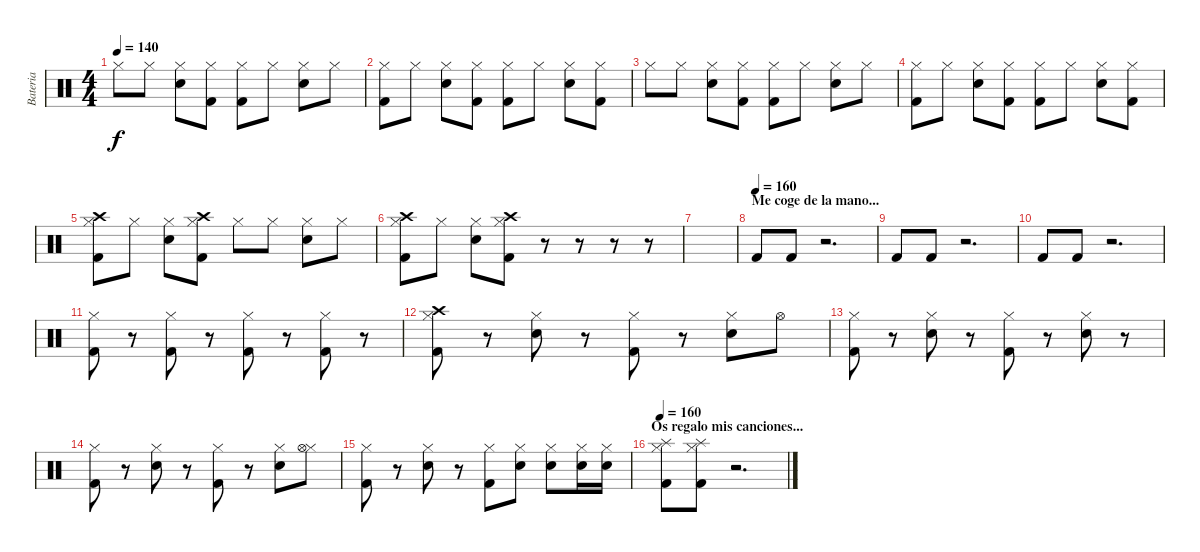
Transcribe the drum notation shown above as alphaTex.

\track ("Bateria" "Bateria") {instrument percussion}
\staff {score}
\articulation defaults
\ts (4 4)
\tempo 140
\clef neutral
\ks c "Hi-Hat (closed)".8{dy f} "Hi-Hat (closed)".8
("Hi-Hat (closed)" "Snare (hit) 2").8 ("Hi-Hat (closed)" "Kick (hit) 2").8 ("Hi-Hat (closed)" "Kick (hit) 2").8 "Hi-Hat (closed)".8 ("Hi-Hat (closed)" "Snare (hit) 2").8 "Hi-Hat (closed)".8 |
("Hi-Hat (closed)" "Kick (hit) 2").8 "Hi-Hat (closed)".8 ("Hi-Hat (closed)" "Snare (hit) 2").8 ("Hi-Hat (closed)" "Kick (hit) 2").8 ("Hi-Hat (closed)" "Kick (hit) 2").8 "Hi-Hat (closed)".8 ("Hi-Hat (closed)" "Snare (hit) 2").8 ("Hi-Hat (closed)" "Kick (hit) 2").8 |
"Hi-Hat (closed)".8 "Hi-Hat (closed)".8 ("Hi-Hat (closed)" "Snare (hit) 2").8 ("Hi-Hat (closed)" "Kick (hit) 2").8 ("Hi-Hat (closed)" "Kick (hit) 2").8 "Hi-Hat (closed)".8 ("Hi-Hat (closed)" "Snare (hit) 2").8 "Hi-Hat (closed)".8 |
("Hi-Hat (closed)" "Kick (hit) 2").8 "Hi-Hat (closed)".8 ("Hi-Hat (closed)" "Snare (hit) 2").8 ("Hi-Hat (closed)" "Kick (hit) 2").8 ("Hi-Hat (closed)" "Kick (hit) 2").8 "Hi-Hat (closed)".8 ("Hi-Hat (closed)" "Snare (hit) 2").8 ("Hi-Hat (closed)" "Kick (hit) 2").8 |
("Hi-Hat (closed)" "Crash high (hit)" "Kick (hit) 2").8 "Hi-Hat (closed)".8 ("Hi-Hat (closed)" "Snare (hit) 2").8 ("Hi-Hat (closed)" "Crash high (hit)" "Kick (hit) 2").8 "Hi-Hat (closed)".8 "Hi-Hat (closed)".8 ("Hi-Hat (closed)" "Snare (hit) 2").8 "Hi-Hat (closed)".8 |
("Hi-Hat (closed)" "Crash high (hit)" "Kick (hit) 2").8 "Hi-Hat (closed)".8 ("Hi-Hat (closed)" "Snare (hit) 2").8 ("Hi-Hat (closed)" "Crash high (hit)" "Kick (hit) 2").8 r.8 r.8 r.8 r.8 |
|
\section ("" "Me coge de la mano...")
\tempo (160)
"Kick (hit) 2".8 "Kick (hit) 2".8 r.2{d} |
"Kick (hit) 2".8 "Kick (hit) 2".8 r.2{d} |
"Kick (hit) 2".8 "Kick (hit) 2".8 r.2{d} |
("Hi-Hat (closed)" "Kick (hit) 2").8 r.8 ("Hi-Hat (closed)" "Kick (hit) 2").8 r.8 ("Hi-Hat (closed)" "Kick (hit) 2").8 r.8 ("Hi-Hat (closed)" "Kick (hit) 2").8 r.8 |
("Hi-Hat (closed)" "Crash high (hit)" "Kick (hit) 2").8 r.8 ("Hi-Hat (closed)" "Snare (hit) 2").8 r.8 ("Hi-Hat (closed)" "Kick (hit) 2").8 r.8 ("Hi-Hat (closed)" "Snare (hit) 2").8 "Hi-Hat (open)".8 |
("Hi-Hat (closed)" "Kick (hit) 2").8 r.8 ("Hi-Hat (closed)" "Snare (hit) 2").8 r.8 ("Hi-Hat (closed)" "Kick (hit) 2").8 r.8 ("Hi-Hat (closed)" "Snare (hit) 2").8 r.8 |
("Hi-Hat (closed)" "Kick (hit) 2").8 r.8 ("Hi-Hat (closed)" "Snare (hit) 2").8 r.8 ("Hi-Hat (closed)" "Kick (hit) 2").8 r.8 ("Hi-Hat (closed)" "Snare (hit) 2").8 ("Hi-Hat (closed)" "Hi-Hat (open)").8 |
("Hi-Hat (closed)" "Kick (hit) 2").8 r.8 ("Hi-Hat (closed)" "Snare (hit) 2").8 r.8 ("Hi-Hat (closed)" "Kick (hit) 2").8 ("Hi-Hat (closed)" "Snare (hit) 2").8 ("Hi-Hat (closed)" "Snare (hit) 2").8 ("Hi-Hat (closed)" "Snare (hit) 2").16 ("Hi-Hat (closed)" "Snare (hit) 2").16 |
\section ("" "Os regalo mis canciones...")
\tempo 160
("Hi-Hat (closed)" "Splash (hit)" "Kick (hit) 2").8 ("Hi-Hat (closed)" "Splash (hit)" "Kick (hit) 2").8 r.2{d}
